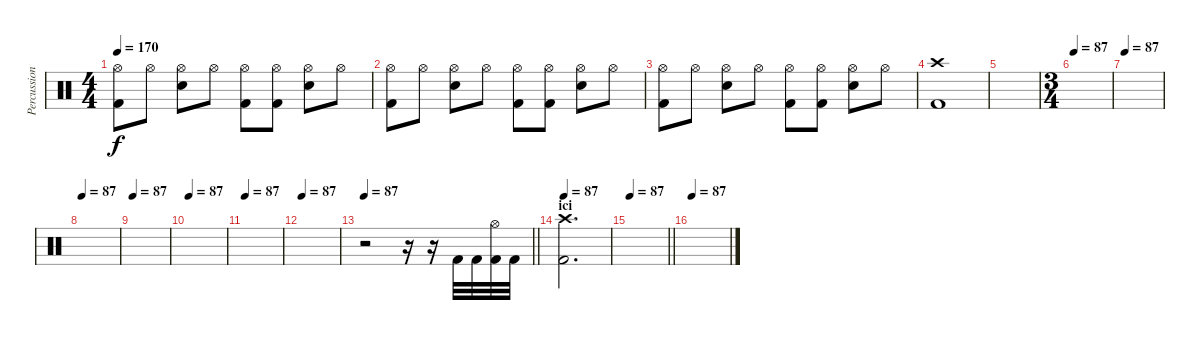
\track ("Percussions" "Percussion") {instrument percussion}
\staff {score}
\articulation defaults
\ts (4 4)
\tempo 170
\clef neutral
\ks c
("Hi-Hat (open)" "Kick (hit) 2").8{dy f} "Hi-Hat (open)".8 ("Hi-Hat (open)" "Snare (hit) 2").8 "Hi-Hat (open)".8 ("Hi-Hat (open)" "Kick (hit) 2").8 ("Hi-Hat (open)" "Kick (hit) 2").8 ("Hi-Hat (open)" "Snare (hit) 2").8 "Hi-Hat (open)".8 |
("Hi-Hat (open)" "Kick (hit) 2").8 "Hi-Hat (open)".8 ("Hi-Hat (open)" "Snare (hit) 2").8 "Hi-Hat (open)".8 ("Hi-Hat (open)" "Kick (hit) 2").8 ("Hi-Hat (open)" "Kick (hit) 2").8 ("Hi-Hat (open)" "Snare (hit) 2").8 "Hi-Hat (open)".8 |
("Hi-Hat (open)" "Kick (hit) 2").8 "Hi-Hat (open)".8 ("Hi-Hat (open)" "Snare (hit) 2").8 "Hi-Hat (open)".8 ("Hi-Hat (open)" "Kick (hit) 2").8 ("Hi-Hat (open)" "Kick (hit) 2").8 ("Hi-Hat (open)" "Snare (hit) 2").8 "Hi-Hat (open)".8 |
("Crash high (hit)" "Kick (hit) 2").1 |
|
\ts (3 4)
\tempo 87
|
\tempo 87
|
\tempo 87
|
\tempo 87
|
\tempo 87
|
\tempo 87
|
\tempo 87
|
\tempo 87
\barLineRight lightlight
r.2 r.16 r.16 "Kick (hit) 2".32 "Kick (hit) 2".32 ("Hi-Hat (open)" "Kick (hit) 2").32 "Kick (hit) 2".32 |
\section ("" "ici")
\tempo 87
("Crash high (hit)" "Kick (hit) 2").2{d} |
\tempo 87
\barLineRight lightlight
|
\tempo 87
